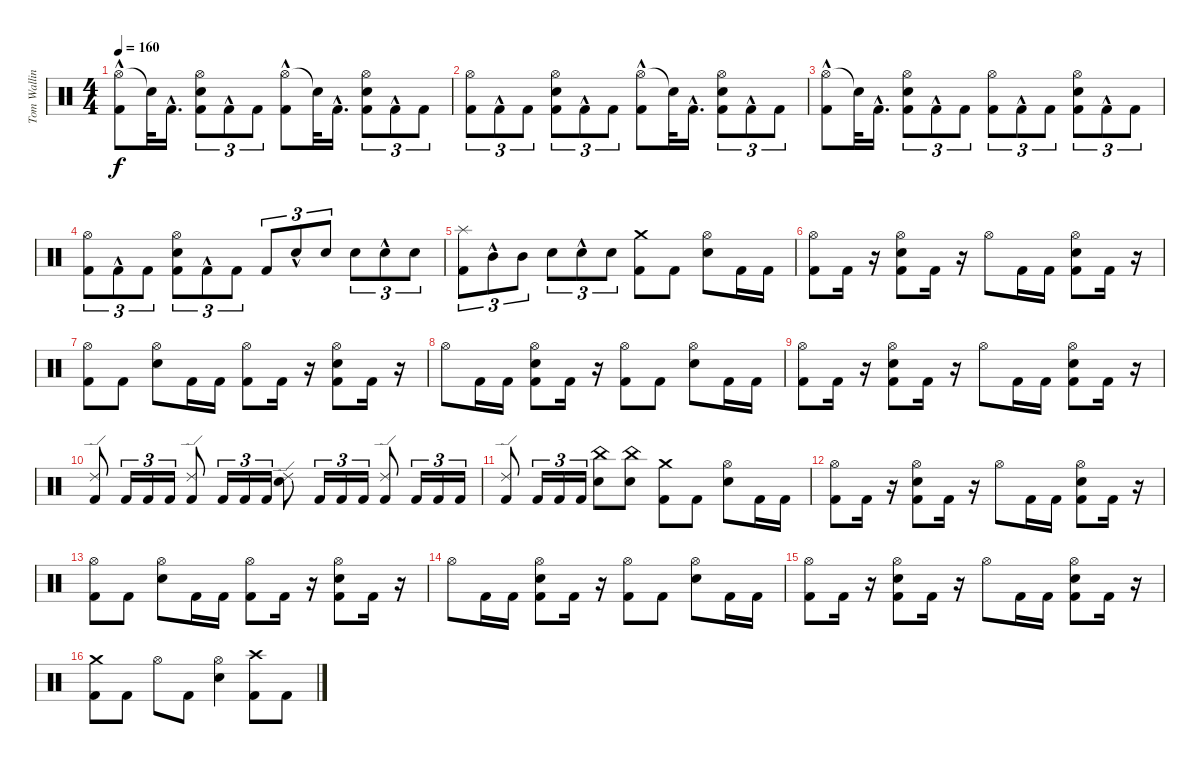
\track ("Tom Walling (Drums)" "Tom Wallin") {instrument percussion}
\staff {score}
\articulation defaults
\ts (4 4)
\tempo 160
\clef neutral
\ks c
("Hi-Hat (open)" "Kick (hit) 2"{hac}).8{dy f} "Snare (hit)"{t}.32 "Kick (hit) 2"{hac}.16{d} ("Hi-Hat (open)" "Electric Snare (hit)" "Kick (hit) 2").8{tu (3 2)} "Kick (hit) 2"{hac}.8{tu (3 2)} "Kick (hit) 2".8{tu (3 2)} ("Hi-Hat (open)" "Kick (hit) 2"{hac}).8 "Snare (hit)"{t}.32 "Kick (hit) 2"{hac}.16{d} ("Hi-Hat (open)" "Electric Snare (hit)" "Kick (hit) 2").8{tu (3 2)} "Kick (hit) 2"{hac}.8{tu (3 2)} "Kick (hit) 2".8{tu (3 2)} |
("Hi-Hat (open)" "Kick (hit) 2").8{tu (3 2)} "Kick (hit) 2"{hac}.8{tu (3 2)} "Kick (hit) 2".8{tu (3 2)} ("Hi-Hat (open)" "Electric Snare (hit)" "Kick (hit) 2").8{tu (3 2)} "Kick (hit) 2"{hac}.8{tu (3 2)} "Kick (hit) 2".8{tu (3 2)} ("Hi-Hat (open)" "Kick (hit) 2"{hac}).8 "Snare (hit)"{t}.32 "Kick (hit) 2"{hac}.16{d} ("Hi-Hat (open)" "Electric Snare (hit)" "Kick (hit) 2").8{tu (3 2)} "Kick (hit) 2"{hac}.8{tu (3 2)} "Kick (hit) 2".8{tu (3 2)} |
("Hi-Hat (open)" "Kick (hit) 2"{hac}).8 "Snare (hit)"{t}.32 "Kick (hit) 2"{hac}.16{d} ("Hi-Hat (open)" "Electric Snare (hit)" "Kick (hit) 2").8{tu (3 2)} "Kick (hit) 2"{hac}.8{tu (3 2)} "Kick (hit) 2".8{tu (3 2)} ("Hi-Hat (open)" "Kick (hit) 2").8{tu (3 2)} "Kick (hit) 2"{hac}.8{tu (3 2)} "Kick (hit) 2".8{tu (3 2)} ("Hi-Hat (open)" "Electric Snare (hit)" "Kick (hit) 2").8{tu (3 2)} "Kick (hit) 2"{hac}.8{tu (3 2)} "Kick (hit) 2".8{tu (3 2)} |
("Hi-Hat (open)" "Kick (hit) 2").8{tu (3 2)} "Kick (hit) 2"{hac}.8{tu (3 2)} "Kick (hit) 2".8{tu (3 2)} ("Hi-Hat (open)" "Electric Snare (hit)" "Kick (hit) 2").8{tu (3 2)} "Kick (hit) 2"{hac}.8{tu (3 2)} "Kick (hit) 2".8{tu (3 2)} "Kick (hit) 2".8{tu (3 2)} "Electric Snare (hit)"{hac}.8{tu (3 2)} "Electric Snare (hit)".8{tu (3 2)} "Electric Snare (hit)".8{tu (3 2)} "Electric Snare (hit)"{hac}.8{tu (3 2)} "Electric Snare (hit)".8{tu (3 2)} |
("Splash (hit)" "Kick (hit) 2").8{tu (3 2)} "Mid Tom (hit)"{hac}.8{tu (3 2)} "Mid Tom (hit)".8{tu (3 2)} "Electric Snare (hit)".8{tu (3 2)} "Electric Snare (hit)"{hac}.8{tu (3 2)} "Electric Snare (hit)".8{tu (3 2)} ("Kick (hit) 2" "Crash medium (hit)").8 "Kick (hit) 2".8 ("Electric Snare (hit)" "Hi-Hat (open)").8 "Kick (hit) 2".16 "Kick (hit) 2".16 |
("Kick (hit) 2" "Hi-Hat (open)").8 "Kick (hit) 2".16 r.16 ("Kick (hit) 2" "Electric Snare (hit)" "Hi-Hat (open)").8 "Kick (hit) 2".16 r.16 "Hi-Hat (open)".8 "Kick (hit) 2".16 "Kick (hit) 2".16 ("Kick (hit) 2" "Electric Snare (hit)" "Hi-Hat (open)").8 "Kick (hit) 2".16 r.16 |
("Hi-Hat (open)" "Kick (hit) 2").8 "Kick (hit) 2".8 ("Electric Snare (hit)" "Hi-Hat (open)").8 "Kick (hit) 2".16 "Kick (hit) 2".16 ("Kick (hit) 2" "Hi-Hat (open)").8 "Kick (hit) 2".16 r.16 ("Kick (hit) 2" "Electric Snare (hit)" "Hi-Hat (open)").8 "Kick (hit) 2".16 r.16 |
"Hi-Hat (open)".8 "Kick (hit) 2".16 "Kick (hit) 2".16 ("Kick (hit) 2" "Electric Snare (hit)" "Hi-Hat (open)").8 "Kick (hit) 2".16 r.16 ("Hi-Hat (open)" "Kick (hit) 2").8 "Kick (hit) 2".8 ("Electric Snare (hit)" "Hi-Hat (open)").8 "Kick (hit) 2".16 "Kick (hit) 2".16 |
("Kick (hit) 2" "Hi-Hat (open)").8 "Kick (hit) 2".16 r.16 ("Kick (hit) 2" "Electric Snare (hit)" "Hi-Hat (open)").8 "Kick (hit) 2".16 r.16 "Hi-Hat (open)".8 "Kick (hit) 2".16 "Kick (hit) 2".16 ("Kick (hit) 2" "Electric Snare (hit)" "Hi-Hat (open)").8 "Kick (hit) 2".16 r.16 |
("Kick (hit) 2" "Ride (edge) 2").8 "Kick (hit) 2".16{tu (3 2)} "Kick (hit) 2".16{tu (3 2)} "Kick (hit) 2".16{tu (3 2)} ("Kick (hit) 2" "Ride (edge) 2").8 "Kick (hit) 2".16{tu (3 2)} "Kick (hit) 2".16{tu (3 2)} "Kick (hit) 2".16{tu (3 2)} ("Electric Snare (hit)" "Ride (edge) 2").8 "Kick (hit) 2".16{tu (3 2)} "Kick (hit) 2".16{tu (3 2)} "Kick (hit) 2".16{tu (3 2)} ("Kick (hit) 2" "Ride (edge) 2").8 "Kick (hit) 2".16{tu (3 2)} "Kick (hit) 2".16{tu (3 2)} "Kick (hit) 2".16{tu (3 2)} |
("Kick (hit) 2" "Ride (edge) 2").8 "Kick (hit) 2".16{tu (3 2)} "Kick (hit) 2".16{tu (3 2)} "Kick (hit) 2".16{tu (3 2)} ("Electric Snare (hit)" "China (hit)").8 ("Electric Snare (hit)" "China (hit)").8 ("Kick (hit) 2" "Crash medium (hit)").8 "Kick (hit) 2".8 ("Electric Snare (hit)" "Hi-Hat (open)").8 "Kick (hit) 2".16 "Kick (hit) 2".16 |
("Kick (hit) 2" "Hi-Hat (open)").8 "Kick (hit) 2".16 r.16 ("Kick (hit) 2" "Electric Snare (hit)" "Hi-Hat (open)").8 "Kick (hit) 2".16 r.16 "Hi-Hat (open)".8 "Kick (hit) 2".16 "Kick (hit) 2".16 ("Kick (hit) 2" "Electric Snare (hit)" "Hi-Hat (open)").8 "Kick (hit) 2".16 r.16 |
("Hi-Hat (open)" "Kick (hit) 2").8 "Kick (hit) 2".8 ("Electric Snare (hit)" "Hi-Hat (open)").8 "Kick (hit) 2".16 "Kick (hit) 2".16 ("Kick (hit) 2" "Hi-Hat (open)").8 "Kick (hit) 2".16 r.16 ("Kick (hit) 2" "Electric Snare (hit)" "Hi-Hat (open)").8 "Kick (hit) 2".16 r.16 |
"Hi-Hat (open)".8 "Kick (hit) 2".16 "Kick (hit) 2".16 ("Kick (hit) 2" "Electric Snare (hit)" "Hi-Hat (open)").8 "Kick (hit) 2".16 r.16 ("Hi-Hat (open)" "Kick (hit) 2").8 "Kick (hit) 2".8 ("Electric Snare (hit)" "Hi-Hat (open)").8 "Kick (hit) 2".16 "Kick (hit) 2".16 |
("Kick (hit) 2" "Hi-Hat (open)").8 "Kick (hit) 2".16 r.16 ("Kick (hit) 2" "Electric Snare (hit)" "Hi-Hat (open)").8 "Kick (hit) 2".16 r.16 "Hi-Hat (open)".8 "Kick (hit) 2".16 "Kick (hit) 2".16 ("Kick (hit) 2" "Electric Snare (hit)" "Hi-Hat (open)").8 "Kick (hit) 2".16 r.16 |
("Crash medium (hit)" "Kick (hit) 2").8 "Kick (hit) 2".8 "Hi-Hat (open)".8 "Kick (hit) 2".8 ("Hi-Hat (open)" "Electric Snare (hit)").4 ("Crash high (hit)" "Kick (hit) 2").8 "Kick (hit) 2".8
